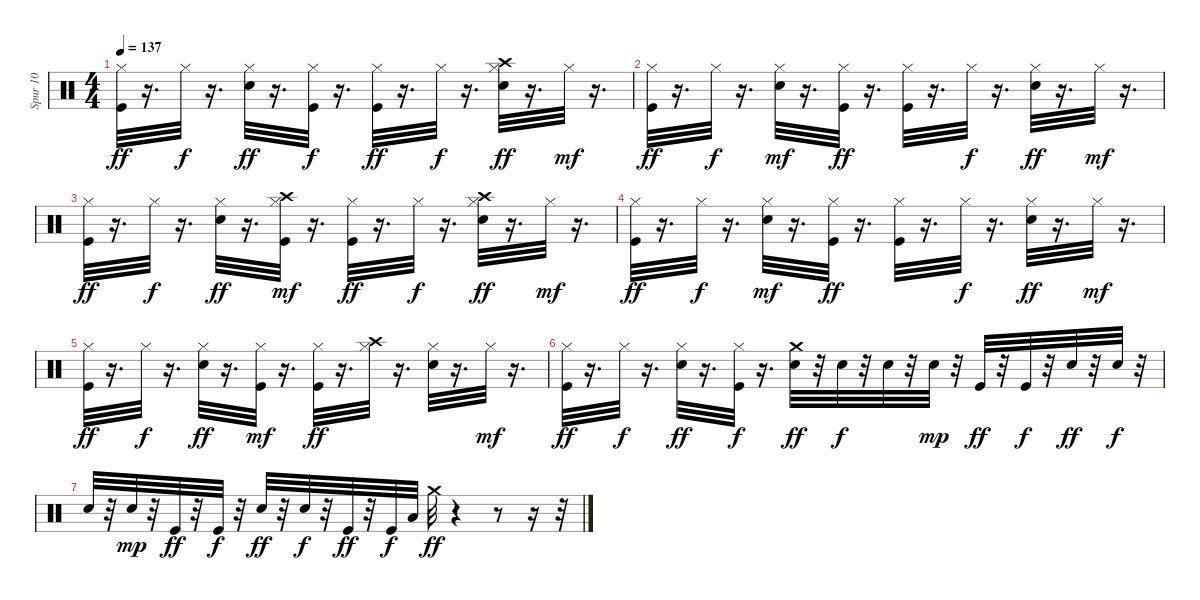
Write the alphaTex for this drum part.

\track ("Spur 10" "Spur 10") {instrument percussion}
\staff {score}
\articulation defaults
\ts (4 4)
\tempo 137
\clef neutral
\ks c
("Kick (hit)" "Hi-Hat (closed)").32{dy ff} r.16{d} "Hi-Hat (closed)".32{dy f} r.16{d} ("Electric Snare (hit)" "Hi-Hat (closed)").32{dy ff} r.16{d} ("Kick (hit)" "Hi-Hat (closed)").32{dy f} r.16{d} ("Kick (hit)" "Hi-Hat (closed)").32{dy ff} r.16{d} "Hi-Hat (closed)".32{dy f} r.16{d} ("Crash high (hit)" "Electric Snare (hit)" "Hi-Hat (closed)").32{dy ff} r.16{d} "Hi-Hat (closed)".32{dy mf} r.16{d} |
("Kick (hit)" "Hi-Hat (closed)").32{dy ff} r.16{d} "Hi-Hat (closed)".32{dy f} r.16{d} ("Electric Snare (hit)" "Hi-Hat (closed)").32{dy mf} r.16{d} ("Kick (hit)" "Hi-Hat (closed)").32{dy ff} r.16{d} ("Kick (hit)" "Hi-Hat (closed)").32 r.16{d} "Hi-Hat (closed)".32{dy f} r.16{d} ("Electric Snare (hit)" "Hi-Hat (closed)").32{dy ff} r.16{d} "Hi-Hat (closed)".32{dy mf} r.16{d} |
("Kick (hit)" "Hi-Hat (closed)").32{dy ff} r.16{d} "Hi-Hat (closed)".32{dy f} r.16{d} ("Electric Snare (hit)" "Hi-Hat (closed)").32{dy ff} r.16{d} ("Crash high (hit)" "Kick (hit)" "Hi-Hat (closed)").32{dy mf} r.16{d} ("Kick (hit)" "Hi-Hat (closed)").32{dy ff} r.16{d} "Hi-Hat (closed)".32{dy f} r.16{d} ("Crash high (hit)" "Electric Snare (hit)" "Hi-Hat (closed)").32{dy ff} r.16{d} "Hi-Hat (closed)".32{dy mf} r.16{d} |
("Kick (hit)" "Hi-Hat (closed)").32{dy ff} r.16{d} "Hi-Hat (closed)".32{dy f} r.16{d} ("Electric Snare (hit)" "Hi-Hat (closed)").32{dy mf} r.16{d} ("Kick (hit)" "Hi-Hat (closed)").32{dy ff} r.16{d} ("Kick (hit)" "Hi-Hat (closed)").32 r.16{d} "Hi-Hat (closed)".32{dy f} r.16{d} ("Electric Snare (hit)" "Hi-Hat (closed)").32{dy ff} r.16{d} "Hi-Hat (closed)".32{dy mf} r.16{d} |
("Kick (hit)" "Hi-Hat (closed)").32{dy ff} r.16{d} "Hi-Hat (closed)".32{dy f} r.16{d} ("Electric Snare (hit)" "Hi-Hat (closed)").32{dy ff} r.16{d} ("Kick (hit)" "Hi-Hat (closed)").32{dy mf} r.16{d} ("Kick (hit)" "Hi-Hat (closed)").32{dy ff} r.16{d} ("Crash high (hit)" "Hi-Hat (closed)").32 r.16{d} ("Electric Snare (hit)" "Hi-Hat (closed)").32 r.16{d} "Hi-Hat (closed)".32{dy mf} r.16{d} |
("Kick (hit)" "Hi-Hat (closed)").32{dy ff} r.16{d} "Hi-Hat (closed)".32{dy f} r.16{d} ("Electric Snare (hit)" "Hi-Hat (closed)").32{dy ff} r.16{d} ("Kick (hit)" "Hi-Hat (closed)").32{dy f} r.16{d} ("Electric Snare (hit)" "Crash medium (hit)").32{dy ff} r.32 "Electric Snare (hit)".32{dy f} r.32 "Electric Snare (hit)".32 r.32 "Electric Snare (hit)".32{dy mp} r.32 "Kick (hit)".32{dy ff} r.32 "Kick (hit)".32{dy f} r.32 "Electric Snare (hit)".32{dy ff} r.32 "Electric Snare (hit)".32{dy f} r.32 |
"Electric Snare (hit)".32 r.32 "Electric Snare (hit)".32{dy mp} r.32 "Kick (hit)".32{dy ff} r.32 "Kick (hit)".32{dy f} r.32 "Electric Snare (hit)".32{dy ff} r.32 "Electric Snare (hit)".32{dy f} r.32 "Kick (hit)".32{dy ff} r.32 "Kick (hit)".32{dy f} "Low Tom (hit)".32 "Crash medium (hit)".32{dy ff} r.4 r.8 r.16 r.32
